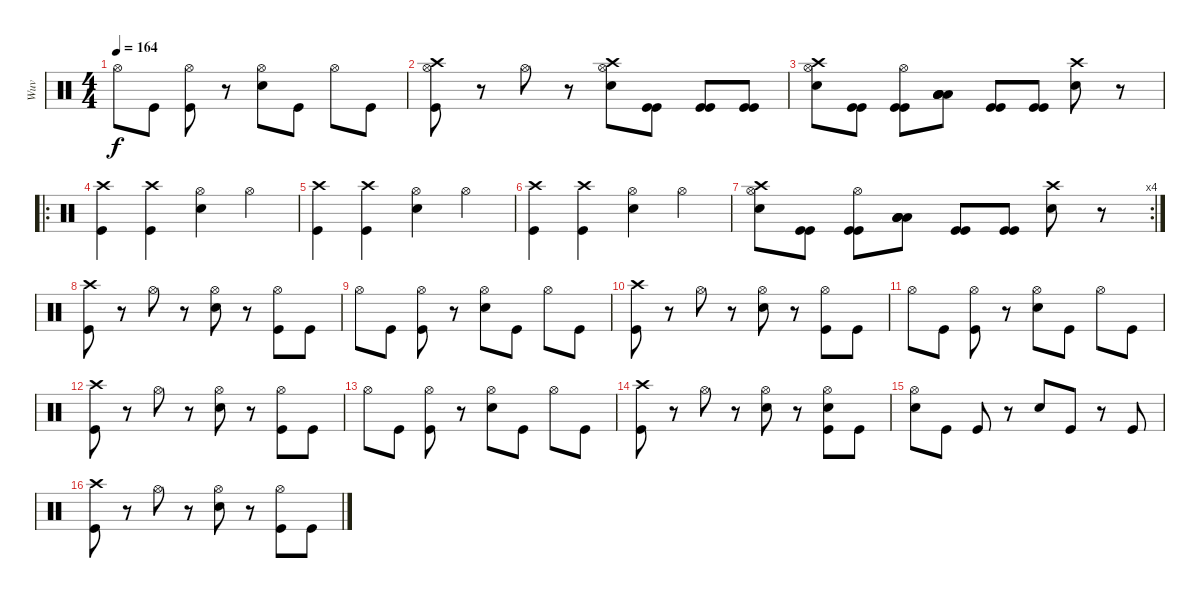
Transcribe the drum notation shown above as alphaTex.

\track ("Wuv" "Wuv") {instrument percussion}
\staff {score}
\articulation defaults
\ts (4 4)
\tempo 164
\clef neutral
\ks c "Hi-Hat (open)".8{dy f} "Kick (hit)".8
("Hi-Hat (open)" "Kick (hit)").8 r.8 ("Hi-Hat (open)" "Snare (hit) 2").8 "Kick (hit)".8 "Hi-Hat (open)".8 "Kick (hit)".8 |
("Hi-Hat (open)" "Crash high (hit)" "Kick (hit)").8 r.8 "Hi-Hat (open)".8 r.8 ("Hi-Hat (open)" "Crash high (hit)" "Snare (hit) 2").8 ("Kick (hit)" "Kick (hit)").8 ("Kick (hit)" "Kick (hit)").8 ("Kick (hit)" "Kick (hit)").8 |
("Hi-Hat (open)" "Crash high (hit)" "Snare (hit) 2").8 ("Kick (hit)" "Kick (hit)").8 ("Hi-Hat (open)" "Kick (hit)" "Kick (hit)").8 ("Low Floor Tom (hit)" "Low Floor Tom (hit)" "Low Floor Tom (hit)" "Low Floor Tom (hit)").8 ("Kick (hit)" "Kick (hit)").8 ("Kick (hit)" "Kick (hit)").8 ("Crash high (hit)" "Snare (hit) 2").8 r.8 |
\ro
("Crash high (hit)" "Kick (hit)").4 ("Crash high (hit)" "Kick (hit)").4 ("Hi-Hat (open)" "Snare (hit) 2").4 "Hi-Hat (open)".4 |
("Crash high (hit)" "Kick (hit)").4 ("Crash high (hit)" "Kick (hit)").4 ("Hi-Hat (open)" "Snare (hit) 2").4 "Hi-Hat (open)".4 |
("Crash high (hit)" "Kick (hit)").4 ("Crash high (hit)" "Kick (hit)").4 ("Hi-Hat (open)" "Snare (hit) 2").4 "Hi-Hat (open)".4 |
\rc 4
("Hi-Hat (open)" "Crash high (hit)" "Snare (hit) 2").8 ("Kick (hit)" "Kick (hit)").8 ("Hi-Hat (open)" "Kick (hit)" "Kick (hit)").8 ("Low Floor Tom (hit)" "Low Floor Tom (hit)" "Low Floor Tom (hit)" "Low Floor Tom (hit)").8 ("Kick (hit)" "Kick (hit)").8 ("Kick (hit)" "Kick (hit)").8 ("Crash high (hit)" "Snare (hit) 2").8 r.8 |
("Crash high (hit)" "Kick (hit)").8 r.8 "Hi-Hat (open)".8 r.8 ("Hi-Hat (open)" "Snare (hit) 2").8 r.8 ("Hi-Hat (open)" "Kick (hit)").8 "Kick (hit)".8 |
"Hi-Hat (open)".8 "Kick (hit)".8 ("Hi-Hat (open)" "Kick (hit)").8 r.8 ("Hi-Hat (open)" "Snare (hit) 2").8 "Kick (hit)".8 "Hi-Hat (open)".8 "Kick (hit)".8 |
("Crash high (hit)" "Kick (hit)").8 r.8 "Hi-Hat (open)".8 r.8 ("Hi-Hat (open)" "Snare (hit) 2").8 r.8 ("Hi-Hat (open)" "Kick (hit)").8 "Kick (hit)".8 |
"Hi-Hat (open)".8 "Kick (hit)".8 ("Hi-Hat (open)" "Kick (hit)").8 r.8 ("Hi-Hat (open)" "Snare (hit) 2").8 "Kick (hit)".8 "Hi-Hat (open)".8 "Kick (hit)".8 |
("Crash high (hit)" "Kick (hit)").8 r.8 "Hi-Hat (open)".8 r.8 ("Hi-Hat (open)" "Snare (hit) 2").8 r.8 ("Hi-Hat (open)" "Kick (hit)").8 "Kick (hit)".8 |
"Hi-Hat (open)".8 "Kick (hit)".8 ("Hi-Hat (open)" "Kick (hit)").8 r.8 ("Hi-Hat (open)" "Snare (hit) 2").8 "Kick (hit)".8 "Hi-Hat (open)".8 "Kick (hit)".8 |
("Crash high (hit)" "Kick (hit)").8 r.8 "Hi-Hat (open)".8 r.8 ("Hi-Hat (open)" "Snare (hit) 2").8 r.8 ("Hi-Hat (open)" "Snare (hit) 2" "Kick (hit)").8 "Kick (hit)".8 |
("Hi-Hat (open)" "Snare (hit) 2").8 "Kick (hit)".8 "Kick (hit)".8 r.8 "Snare (hit) 2".8 "Kick (hit)".8 r.8 "Kick (hit)".8 |
("Crash high (hit)" "Kick (hit)").8 r.8 "Hi-Hat (open)".8 r.8 ("Hi-Hat (open)" "Snare (hit) 2").8 r.8 ("Hi-Hat (open)" "Kick (hit)").8 "Kick (hit)".8
